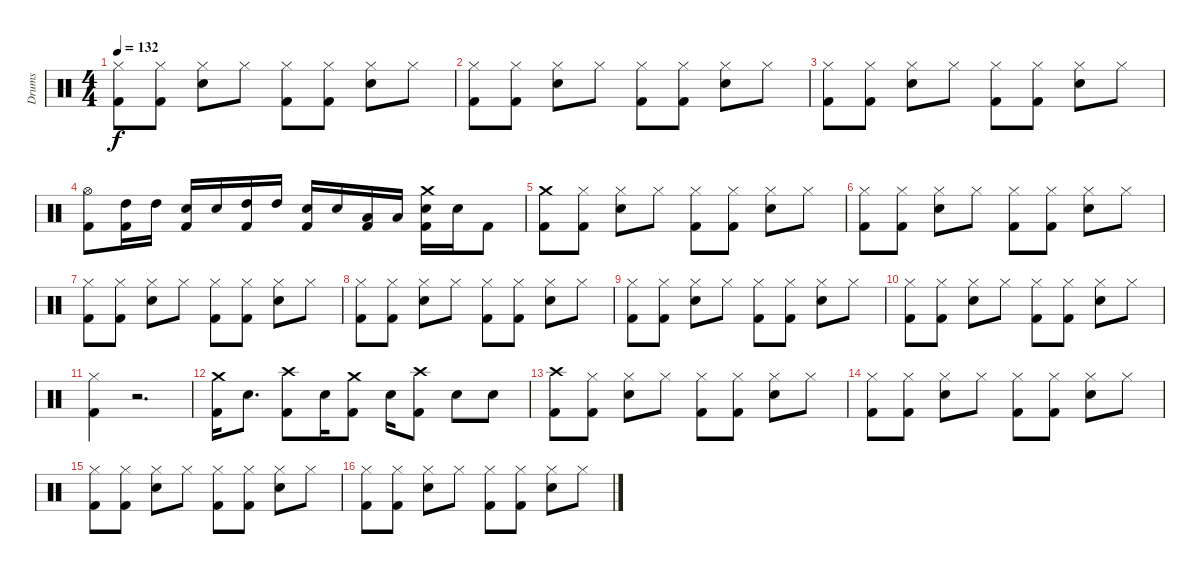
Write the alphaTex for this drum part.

\track ("Drums" "Drums") {instrument percussion}
\staff {score}
\articulation defaults
\ts (4 4)
\tempo 132
\clef neutral
\ks c
("Kick (hit) 2" "Hi-Hat (closed)").8{dy f} ("Kick (hit) 2" "Hi-Hat (closed)").8 ("Snare (hit) 2" "Hi-Hat (closed)").8 "Hi-Hat (closed)".8 ("Kick (hit) 2" "Hi-Hat (closed)").8 ("Kick (hit) 2" "Hi-Hat (closed)").8 ("Snare (hit) 2" "Hi-Hat (closed)").8 "Hi-Hat (closed)".8 |
("Kick (hit) 2" "Hi-Hat (closed)").8 ("Kick (hit) 2" "Hi-Hat (closed)").8 ("Snare (hit) 2" "Hi-Hat (closed)").8 "Hi-Hat (closed)".8 ("Kick (hit) 2" "Hi-Hat (closed)").8 ("Kick (hit) 2" "Hi-Hat (closed)").8 ("Snare (hit) 2" "Hi-Hat (closed)").8 "Hi-Hat (closed)".8 |
("Kick (hit) 2" "Hi-Hat (closed)").8 ("Kick (hit) 2" "Hi-Hat (closed)").8 ("Snare (hit) 2" "Hi-Hat (closed)").8 "Hi-Hat (closed)".8 ("Kick (hit) 2" "Hi-Hat (closed)").8 ("Kick (hit) 2" "Hi-Hat (closed)").8 ("Snare (hit) 2" "Hi-Hat (closed)").8 "Hi-Hat (closed)".8 |
("Kick (hit) 2" "Hi-Hat (open)").8 ("Kick (hit) 2" "High Tom (hit)").16 "High Tom (hit)".16 ("Kick (hit) 2" "Snare (hit) 2").16 "Snare (hit) 2".16 ("Kick (hit) 2" "High Tom (hit)").16 "High Tom (hit)".16 ("Kick (hit) 2" "Snare (hit) 2").16 "Snare (hit) 2".16 ("Kick (hit) 2" "Low Tom (hit)").16 "Low Tom (hit)".16 ("Kick (hit) 2" "Snare (hit) 2" "Crash medium (hit)").16 "Snare (hit) 2".16 "Kick (hit) 2".8 |
("Kick (hit) 2" "Crash medium (hit)").8 ("Kick (hit) 2" "Hi-Hat (closed)").8 ("Snare (hit) 2" "Hi-Hat (closed)").8 "Hi-Hat (closed)".8 ("Kick (hit) 2" "Hi-Hat (closed)").8 ("Kick (hit) 2" "Hi-Hat (closed)").8 ("Snare (hit) 2" "Hi-Hat (closed)").8 "Hi-Hat (closed)".8 |
("Kick (hit) 2" "Hi-Hat (closed)").8 ("Kick (hit) 2" "Hi-Hat (closed)").8 ("Snare (hit) 2" "Hi-Hat (closed)").8 "Hi-Hat (closed)".8 ("Kick (hit) 2" "Hi-Hat (closed)").8 ("Kick (hit) 2" "Hi-Hat (closed)").8 ("Snare (hit) 2" "Hi-Hat (closed)").8 "Hi-Hat (closed)".8 |
("Kick (hit) 2" "Hi-Hat (closed)").8 ("Kick (hit) 2" "Hi-Hat (closed)").8 ("Snare (hit) 2" "Hi-Hat (closed)").8 "Hi-Hat (closed)".8 ("Kick (hit) 2" "Hi-Hat (closed)").8 ("Kick (hit) 2" "Hi-Hat (closed)").8 ("Snare (hit) 2" "Hi-Hat (closed)").8 "Hi-Hat (closed)".8 |
("Kick (hit) 2" "Hi-Hat (closed)").8 ("Kick (hit) 2" "Hi-Hat (closed)").8 ("Snare (hit) 2" "Hi-Hat (closed)").8 "Hi-Hat (closed)".8 ("Kick (hit) 2" "Hi-Hat (closed)").8 ("Kick (hit) 2" "Hi-Hat (closed)").8 ("Snare (hit) 2" "Hi-Hat (closed)").8 "Hi-Hat (closed)".8 |
("Kick (hit) 2" "Hi-Hat (closed)").8 ("Kick (hit) 2" "Hi-Hat (closed)").8 ("Snare (hit) 2" "Hi-Hat (closed)").8 "Hi-Hat (closed)".8 ("Kick (hit) 2" "Hi-Hat (closed)").8 ("Kick (hit) 2" "Hi-Hat (closed)").8 ("Snare (hit) 2" "Hi-Hat (closed)").8 "Hi-Hat (closed)".8 |
("Kick (hit) 2" "Hi-Hat (closed)").8 ("Kick (hit) 2" "Hi-Hat (closed)").8 ("Snare (hit) 2" "Hi-Hat (closed)").8 "Hi-Hat (closed)".8 ("Kick (hit) 2" "Hi-Hat (closed)").8 ("Kick (hit) 2" "Hi-Hat (closed)").8 ("Snare (hit) 2" "Hi-Hat (closed)").8 "Hi-Hat (closed)".8 |
("Kick (hit) 2" "Hi-Hat (closed)").4 r.2{d} |
("Kick (hit) 2" "Crash medium (hit)").16 "Snare (hit) 2".8{d} ("Kick (hit) 2" "Crash high (hit)").8 "Snare (hit) 2".16 ("Kick (hit) 2" "Crash medium (hit)").8 "Snare (hit) 2".16 ("Kick (hit) 2" "Crash high (hit)").8 "Snare (hit) 2".8 "Snare (hit) 2".8 |
("Kick (hit) 2" "Crash high (hit)").8 ("Kick (hit) 2" "Hi-Hat (closed)").8 ("Snare (hit) 2" "Hi-Hat (closed)").8 "Hi-Hat (closed)".8 ("Kick (hit) 2" "Hi-Hat (closed)").8 ("Kick (hit) 2" "Hi-Hat (closed)").8 ("Snare (hit) 2" "Hi-Hat (closed)").8 "Hi-Hat (closed)".8 |
("Kick (hit) 2" "Hi-Hat (closed)").8 ("Kick (hit) 2" "Hi-Hat (closed)").8 ("Snare (hit) 2" "Hi-Hat (closed)").8 "Hi-Hat (closed)".8 ("Kick (hit) 2" "Hi-Hat (closed)").8 ("Kick (hit) 2" "Hi-Hat (closed)").8 ("Snare (hit) 2" "Hi-Hat (closed)").8 "Hi-Hat (closed)".8 |
("Kick (hit) 2" "Hi-Hat (closed)").8 ("Kick (hit) 2" "Hi-Hat (closed)").8 ("Snare (hit) 2" "Hi-Hat (closed)").8 "Hi-Hat (closed)".8 ("Kick (hit) 2" "Hi-Hat (closed)").8 ("Kick (hit) 2" "Hi-Hat (closed)").8 ("Snare (hit) 2" "Hi-Hat (closed)").8 "Hi-Hat (closed)".8 |
("Kick (hit) 2" "Hi-Hat (closed)").8 ("Kick (hit) 2" "Hi-Hat (closed)").8 ("Snare (hit) 2" "Hi-Hat (closed)").8 "Hi-Hat (closed)".8 ("Kick (hit) 2" "Hi-Hat (closed)").8 ("Kick (hit) 2" "Hi-Hat (closed)").8 ("Snare (hit) 2" "Hi-Hat (closed)").8 "Hi-Hat (closed)".8
